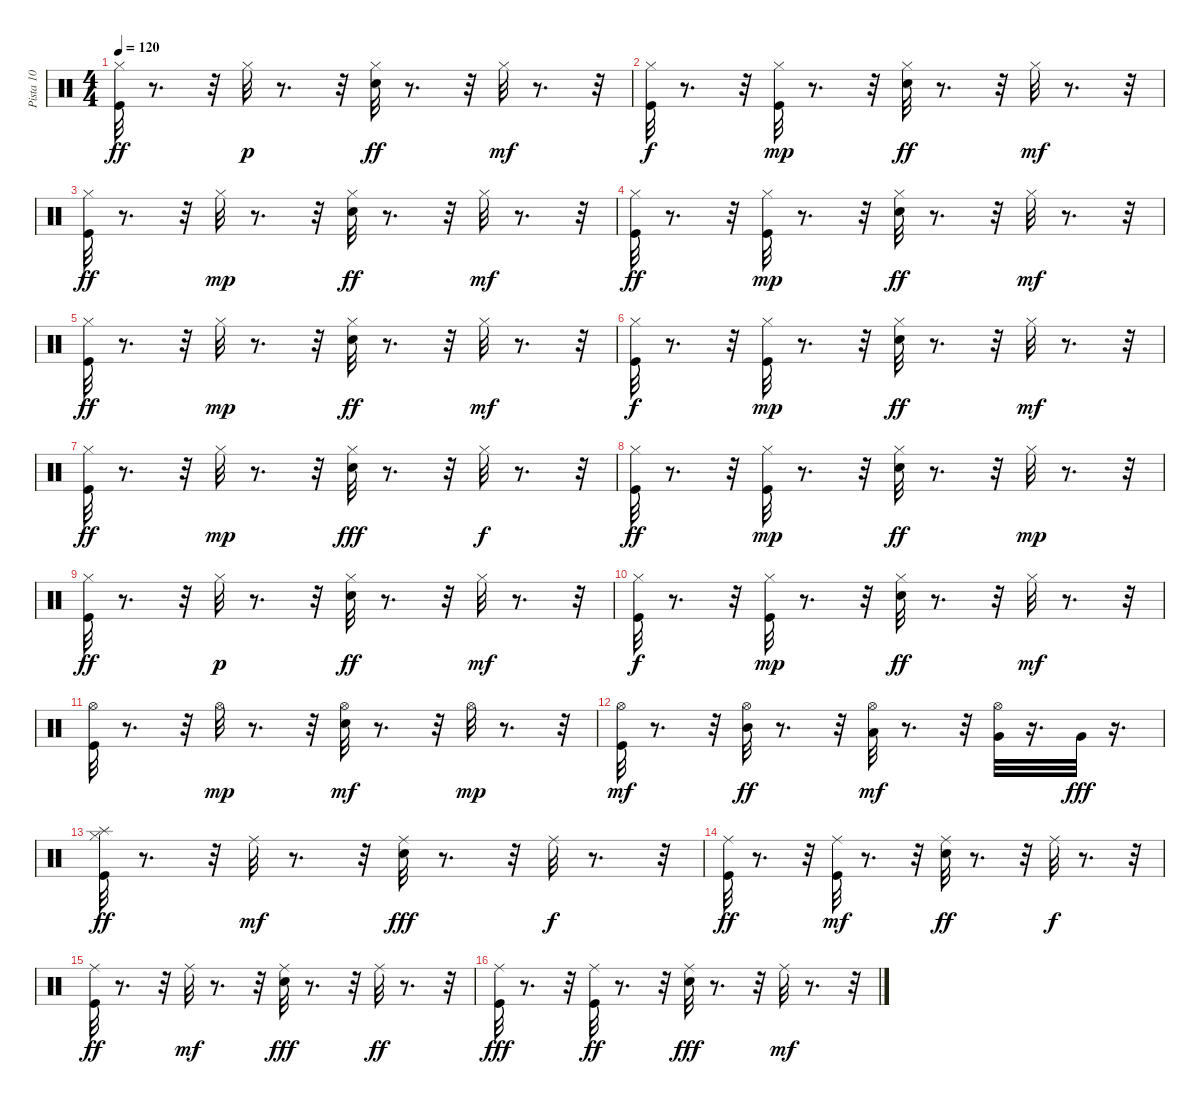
\track ("Pista 10" "Pista 10") {instrument percussion}
\staff {score}
\articulation defaults
\ts (4 4)
\tempo 120
\clef neutral
\ks c
("Kick (hit)" "Hi-Hat (closed)").32{dy ff} r.8{d} r.32 "Hi-Hat (closed)".32{dy p} r.8{d} r.32 ("Snare (hit) 2" "Hi-Hat (closed)").32{dy ff} r.8{d} r.32 "Hi-Hat (closed)".32{dy mf} r.8{d} r.32 |
("Kick (hit)" "Hi-Hat (closed)").32{dy f} r.8{d} r.32 ("Kick (hit)" "Hi-Hat (closed)").32{dy mp} r.8{d} r.32 ("Snare (hit) 2" "Hi-Hat (closed)").32{dy ff} r.8{d} r.32 "Hi-Hat (closed)".32{dy mf} r.8{d} r.32 |
("Kick (hit)" "Hi-Hat (closed)").32{dy ff} r.8{d} r.32 "Hi-Hat (closed)".32{dy mp} r.8{d} r.32 ("Snare (hit) 2" "Hi-Hat (closed)").32{dy ff} r.8{d} r.32 "Hi-Hat (closed)".32{dy mf} r.8{d} r.32 |
("Kick (hit)" "Hi-Hat (closed)").32{dy ff} r.8{d} r.32 ("Kick (hit)" "Hi-Hat (closed)").32{dy mp} r.8{d} r.32 ("Snare (hit) 2" "Hi-Hat (closed)").32{dy ff} r.8{d} r.32 "Hi-Hat (closed)".32{dy mf} r.8{d} r.32 |
("Kick (hit)" "Hi-Hat (closed)").32{dy ff} r.8{d} r.32 "Hi-Hat (closed)".32{dy mp} r.8{d} r.32 ("Snare (hit) 2" "Hi-Hat (closed)").32{dy ff} r.8{d} r.32 "Hi-Hat (closed)".32{dy mf} r.8{d} r.32 |
("Kick (hit)" "Hi-Hat (closed)").32{dy f} r.8{d} r.32 ("Kick (hit)" "Hi-Hat (closed)").32{dy mp} r.8{d} r.32 ("Snare (hit) 2" "Hi-Hat (closed)").32{dy ff} r.8{d} r.32 "Hi-Hat (closed)".32{dy mf} r.8{d} r.32 |
("Kick (hit)" "Hi-Hat (closed)").32{dy ff} r.8{d} r.32 "Hi-Hat (closed)".32{dy mp} r.8{d} r.32 ("Snare (hit) 2" "Hi-Hat (closed)").32{dy fff} r.8{d} r.32 "Hi-Hat (closed)".32{dy f} r.8{d} r.32 |
("Kick (hit)" "Hi-Hat (closed)").32{dy ff} r.8{d} r.32 ("Kick (hit)" "Hi-Hat (closed)").32{dy mp} r.8{d} r.32 ("Snare (hit) 2" "Hi-Hat (closed)").32{dy ff} r.8{d} r.32 "Hi-Hat (closed)".32{dy mp} r.8{d} r.32 |
("Kick (hit)" "Hi-Hat (closed)").32{dy ff} r.8{d} r.32 "Hi-Hat (closed)".32{dy p} r.8{d} r.32 ("Snare (hit) 2" "Hi-Hat (closed)").32{dy ff} r.8{d} r.32 "Hi-Hat (closed)".32{dy mf} r.8{d} r.32 |
("Kick (hit)" "Hi-Hat (closed)").32{dy f} r.8{d} r.32 ("Kick (hit)" "Hi-Hat (closed)").32{dy mp} r.8{d} r.32 ("Snare (hit) 2" "Hi-Hat (closed)").32{dy ff} r.8{d} r.32 "Hi-Hat (closed)".32{dy mf} r.8{d} r.32 |
("Kick (hit)" "Hi-Hat (open)").32 r.8{d} r.32 "Hi-Hat (open)".32{dy mp} r.8{d} r.32 ("Snare (hit) 2" "Hi-Hat (open)").32{dy mf} r.8{d} r.32 "Hi-Hat (open)".32{dy mp} r.8{d} r.32 |
("Kick (hit)" "Hi-Hat (open)").32{dy mf} r.8{d} r.32 ("Hi-Hat (open)" "Mid Tom (hit)").32{dy ff} r.8{d} r.32 ("Low Tom (hit)" "Hi-Hat (open)").32{dy mf} r.8{d} r.32 ("Hi-Hat (open)" "Very Low Tom (hit)").32 r.16{d} "Very Low Tom (hit)".32{dy fff} r.16{d} |
("Splash (hit)" "Kick (hit)" "Hi-Hat (closed)").32{dy ff} r.8{d} r.32 "Ride (middle)".32{dy mf} r.8{d} r.32 ("Snare (hit) 2" "Ride (middle)").32{dy fff} r.8{d} r.32 "Ride (middle)".32{dy f} r.8{d} r.32 |
("Kick (hit)" "Ride (middle)").32{dy ff} r.8{d} r.32 ("Kick (hit)" "Ride (middle)").32{dy mf} r.8{d} r.32 ("Snare (hit) 2" "Ride (middle)").32{dy ff} r.8{d} r.32 "Ride (middle)".32{dy f} r.8{d} r.32 |
("Kick (hit)" "Ride (middle)").32{dy ff} r.8{d} r.32 "Ride (middle)".32{dy mf} r.8{d} r.32 ("Snare (hit) 2" "Ride (middle)").32{dy fff} r.8{d} r.32 "Ride (middle)".32{dy ff} r.8{d} r.32 |
("Kick (hit)" "Ride (middle)").32{dy fff} r.8{d} r.32 ("Kick (hit)" "Ride (middle)").32{dy ff} r.8{d} r.32 ("Snare (hit) 2" "Ride (middle)").32{dy fff} r.8{d} r.32 "Ride (middle)".32{dy mf} r.8{d} r.32
